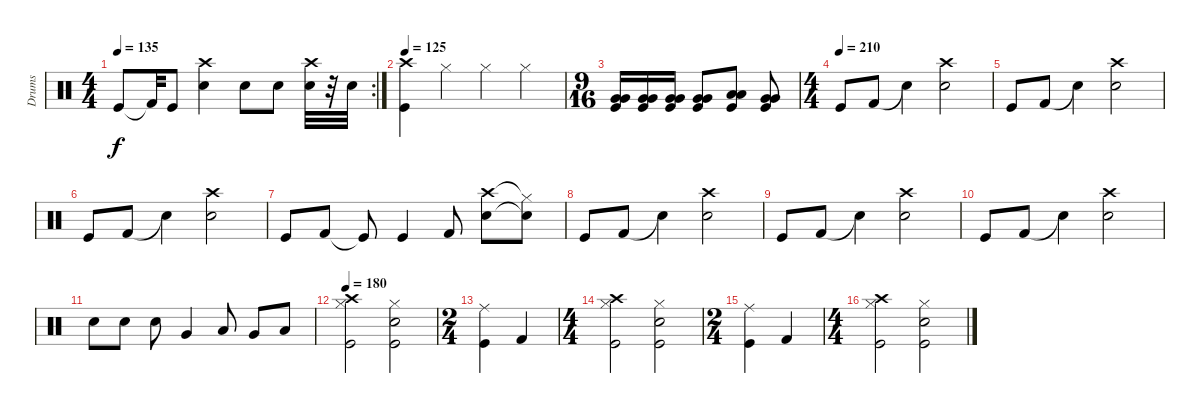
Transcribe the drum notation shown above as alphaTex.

\track ("Drums" "Drums") {instrument percussion}
\staff {score}
\articulation defaults
\rc 2
\ts (4 4)
\tempo 135
\clef neutral
\ks c "Kick (hit)".8{dy f} "Kick (hit) 2"{t}.32 "Kick (hit)".8
("Crash high (hit)" "Snare (hit) 2").4 "Snare (hit) 2".8 "Snare (hit) 2".8 ("Crash high (hit)" "Snare (hit) 2").32 r.32 "Snare (hit) 2".32 |
\tempo 125
("Crash high (hit)" "Kick (hit)").4 "Hi-Hat (closed)".4 "Hi-Hat (closed)".4 "Hi-Hat (closed)".4 |
\ts (9 16)
("Very Low Tom (hit)" "Very Low Tom (hit)" "Kick (hit)").16 ("Very Low Tom (hit)" "Very Low Tom (hit)" "Kick (hit)").16 ("Very Low Tom (hit)" "Very Low Tom (hit)" "Kick (hit)").16 ("Very Low Tom (hit)" "Very Low Tom (hit)" "Kick (hit)").8 ("Low Tom (hit)" "Low Tom (hit)" "Kick (hit)").8 ("Very Low Tom (hit)" "Very Low Tom (hit)" "Kick (hit)").8 |
\ts (4 4)
\tempo (210)
"Kick (hit)".8 "Kick (hit) 2".8 "Snare (hit) 2"{t}.4 ("Crash high (hit)" "Snare (hit) 2").2 |
"Kick (hit)".8 "Kick (hit) 2".8 "Snare (hit) 2"{t}.4 ("Crash high (hit)" "Snare (hit) 2").2 |
"Kick (hit)".8 "Kick (hit) 2".8 "Snare (hit) 2"{t}.4 ("Crash high (hit)" "Snare (hit) 2").2 |
"Kick (hit)".8 "Kick (hit) 2".8 "Kick (hit)"{t}.8 "Kick (hit)".4 "Kick (hit) 2".8 ("Crash high (hit)" "Snare (hit) 2").8 ("Hi-Hat (closed)"{t} "Snare (hit) 2"{t}).8 |
"Kick (hit)".8 "Kick (hit) 2".8 "Snare (hit) 2"{t}.4 ("Crash high (hit)" "Snare (hit) 2").2 |
"Kick (hit)".8 "Kick (hit) 2".8 "Snare (hit) 2"{t}.4 ("Crash high (hit)" "Snare (hit) 2").2 |
"Kick (hit)".8 "Kick (hit) 2".8 "Snare (hit) 2"{t}.4 ("Crash high (hit)" "Snare (hit) 2").2 |
"Snare (hit) 2".8 "Snare (hit) 2".8 "Snare (hit) 2".8 "Very Low Tom (hit)".4 "Low Tom (hit)".8 "Very Low Tom (hit)".8 "Low Tom (hit)".8 |
\tempo 180
("Crash high (hit)" "Kick (hit)" "Hi-Hat (closed)").2 ("Snare (hit) 2" "Kick (hit)" "Hi-Hat (closed)").2 |
\ts (2 4)
("Ride (middle)" "Kick (hit)").4 "Kick (hit) 2".4 |
\ts (4 4)
("Crash high (hit)" "Kick (hit)" "Hi-Hat (closed)").2 ("Snare (hit) 2" "Kick (hit)" "Hi-Hat (closed)").2 |
\ts (2 4)
("Ride (middle)" "Kick (hit)").4 "Kick (hit) 2".4 |
\ts (4 4)
("Crash high (hit)" "Kick (hit)" "Hi-Hat (closed)").2 ("Snare (hit) 2" "Kick (hit)" "Hi-Hat (closed)").2
